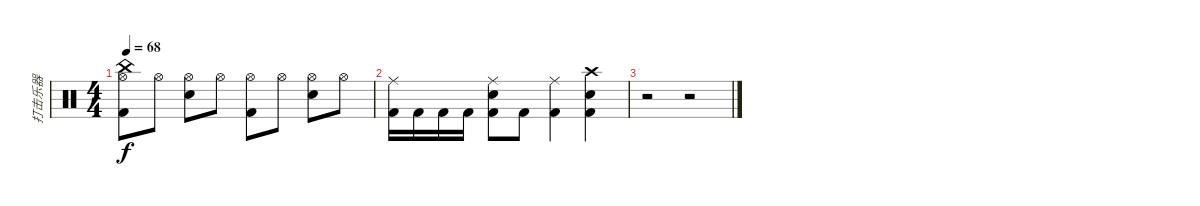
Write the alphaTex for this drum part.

\track ("打击乐器" "打击乐器") {instrument percussion}
\staff {score}
\articulation defaults
\ts (4 4)
\tempo 68
\clef neutral
\ks c
("Hi-Hat (open)" "China (hit)" "Kick (hit) 2").8{dy f} "Hi-Hat (open)".8 ("Hi-Hat (open)" "Snare (hit) 2").8 "Hi-Hat (open)".8 ("Hi-Hat (open)" "Kick (hit) 2").8 "Hi-Hat (open)".8 ("Hi-Hat (open)" "Snare (hit) 2").8 "Hi-Hat (open)".8 |
("Ride (middle)" "Kick (hit) 2").16 "Kick (hit) 2".16 "Kick (hit) 2".16 "Kick (hit) 2".16 ("Ride (middle)" "Snare (hit) 2" "Kick (hit) 2").8 "Kick (hit) 2".8 ("Ride (middle)" "Kick (hit) 2").4 ("Crash high (hit)" "Snare (hit) 2" "Kick (hit) 2").4 |
r.2 r.2
